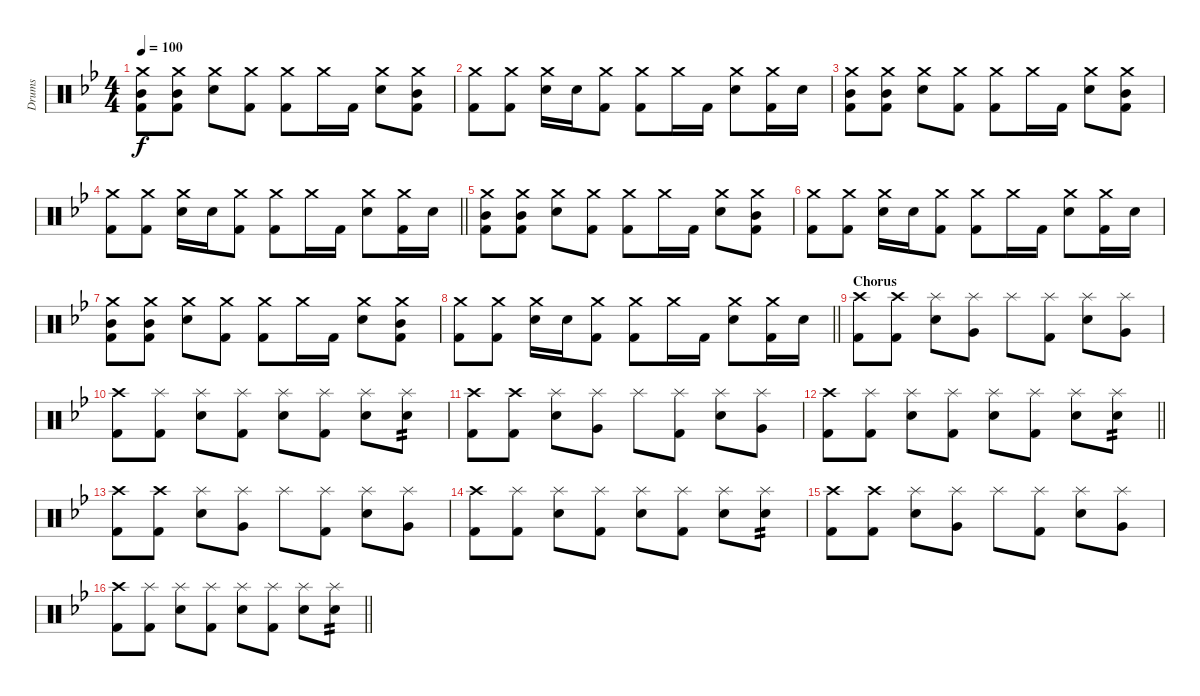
\track ("Drums" "Drums") {instrument percussion}
\staff {score}
\articulation defaults
\ts (4 4)
\section ("" "")
\tempo 100
\clef neutral
\ks gminor
("Crash medium (hit)" "Mid Tom (hit)" "Kick (hit) 2").8{dy f} ("Crash medium (hit)" "Mid Tom (hit)" "Kick (hit) 2").8 ("Crash medium (hit)" "Snare (hit) 2").8 ("Crash medium (hit)" "Kick (hit) 2").8 ("Crash medium (hit)" "Kick (hit) 2").8 "Crash medium (hit)".16 "Kick (hit) 2".16 ("Crash medium (hit)" "Snare (hit) 2").8 ("Crash medium (hit)" "Mid Tom (hit)" "Kick (hit) 2").8 |
("Crash medium (hit)" "Kick (hit) 2").8 ("Crash medium (hit)" "Kick (hit) 2").8 ("Crash medium (hit)" "Snare (hit) 2").16 "Snare (hit) 2".16 ("Crash medium (hit)" "Kick (hit) 2").8 ("Crash medium (hit)" "Kick (hit) 2").8 "Crash medium (hit)".16 "Kick (hit) 2".16 ("Crash medium (hit)" "Snare (hit) 2").8 ("Crash medium (hit)" "Kick (hit) 2").16 "Snare (hit) 2".16 |
("Crash medium (hit)" "Mid Tom (hit)" "Kick (hit) 2").8 ("Crash medium (hit)" "Mid Tom (hit)" "Kick (hit) 2").8 ("Crash medium (hit)" "Snare (hit) 2").8 ("Crash medium (hit)" "Kick (hit) 2").8 ("Crash medium (hit)" "Kick (hit) 2").8 "Crash medium (hit)".16 "Kick (hit) 2".16 ("Crash medium (hit)" "Snare (hit) 2").8 ("Crash medium (hit)" "Mid Tom (hit)" "Kick (hit) 2").8 |
\barLineRight lightlight
("Crash medium (hit)" "Kick (hit) 2").8 ("Crash medium (hit)" "Kick (hit) 2").8 ("Crash medium (hit)" "Snare (hit) 2").16 "Snare (hit) 2".16 ("Crash medium (hit)" "Kick (hit) 2").8 ("Crash medium (hit)" "Kick (hit) 2").8 "Crash medium (hit)".16 "Kick (hit) 2".16 ("Crash medium (hit)" "Snare (hit) 2").8 ("Crash medium (hit)" "Kick (hit) 2").16 "Snare (hit) 2".16 |
\section ("" "")
("Crash medium (hit)" "Mid Tom (hit)" "Kick (hit) 2").8 ("Crash medium (hit)" "Mid Tom (hit)" "Kick (hit) 2").8 ("Crash medium (hit)" "Snare (hit) 2").8 ("Crash medium (hit)" "Kick (hit) 2").8 ("Crash medium (hit)" "Kick (hit) 2").8 "Crash medium (hit)".16 "Kick (hit) 2".16 ("Crash medium (hit)" "Snare (hit) 2").8 ("Crash medium (hit)" "Mid Tom (hit)" "Kick (hit) 2").8 |
("Crash medium (hit)" "Kick (hit) 2").8 ("Crash medium (hit)" "Kick (hit) 2").8 ("Crash medium (hit)" "Snare (hit) 2").16 "Snare (hit) 2".16 ("Crash medium (hit)" "Kick (hit) 2").8 ("Crash medium (hit)" "Kick (hit) 2").8 "Crash medium (hit)".16 "Kick (hit) 2".16 ("Crash medium (hit)" "Snare (hit) 2").8 ("Crash medium (hit)" "Kick (hit) 2").16 "Snare (hit) 2".16 |
("Crash medium (hit)" "Mid Tom (hit)" "Kick (hit) 2").8 ("Crash medium (hit)" "Mid Tom (hit)" "Kick (hit) 2").8 ("Crash medium (hit)" "Snare (hit) 2").8 ("Crash medium (hit)" "Kick (hit) 2").8 ("Crash medium (hit)" "Kick (hit) 2").8 "Crash medium (hit)".16 "Kick (hit) 2".16 ("Crash medium (hit)" "Snare (hit) 2").8 ("Crash medium (hit)" "Mid Tom (hit)" "Kick (hit) 2").8 |
\barLineRight lightlight
("Crash medium (hit)" "Kick (hit) 2").8 ("Crash medium (hit)" "Kick (hit) 2").8 ("Crash medium (hit)" "Snare (hit) 2").16 "Snare (hit) 2".16 ("Crash medium (hit)" "Kick (hit) 2").8 ("Crash medium (hit)" "Kick (hit) 2").8 "Crash medium (hit)".16 "Kick (hit) 2".16 ("Crash medium (hit)" "Snare (hit) 2").8 ("Crash medium (hit)" "Kick (hit) 2").16 "Snare (hit) 2".16 |
\section ("" "Chorus")
("Crash high (hit)" "Kick (hit) 2").8 ("Crash high (hit)" "Kick (hit) 2").8 ("Splash (hit)" "Snare (hit) 2").8 ("Splash (hit)" "Very Low Tom (hit)").8 "Splash (hit)".8 ("Splash (hit)" "Kick (hit) 2").8 ("Splash (hit)" "Snare (hit) 2").8 ("Splash (hit)" "Very Low Tom (hit)").8 |
("Crash high (hit)" "Kick (hit) 2").8 ("Splash (hit)" "Kick (hit) 2").8 ("Splash (hit)" "Snare (hit) 2").8 ("Splash (hit)" "Kick (hit) 2").8 ("Splash (hit)" "Snare (hit) 2").8 ("Splash (hit)" "Kick (hit) 2").8 ("Splash (hit)" "Snare (hit) 2").8 ("Splash (hit)" "Snare (hit) 2").8{tp 2} |
("Crash high (hit)" "Kick (hit) 2").8 ("Crash high (hit)" "Kick (hit) 2").8 ("Splash (hit)" "Snare (hit) 2").8 ("Splash (hit)" "Very Low Tom (hit)").8 "Splash (hit)".8 ("Splash (hit)" "Kick (hit) 2").8 ("Splash (hit)" "Snare (hit) 2").8 ("Splash (hit)" "Very Low Tom (hit)").8 |
\barLineRight lightlight
("Crash high (hit)" "Kick (hit) 2").8 ("Splash (hit)" "Kick (hit) 2").8 ("Splash (hit)" "Snare (hit) 2").8 ("Splash (hit)" "Kick (hit) 2").8 ("Splash (hit)" "Snare (hit) 2").8 ("Splash (hit)" "Kick (hit) 2").8 ("Splash (hit)" "Snare (hit) 2").8 ("Splash (hit)" "Snare (hit) 2").8{tp 2} |
\section ("" "")
("Crash high (hit)" "Kick (hit) 2").8 ("Crash high (hit)" "Kick (hit) 2").8 ("Splash (hit)" "Snare (hit) 2").8 ("Splash (hit)" "Very Low Tom (hit)").8 "Splash (hit)".8 ("Splash (hit)" "Kick (hit) 2").8 ("Splash (hit)" "Snare (hit) 2").8 ("Splash (hit)" "Very Low Tom (hit)").8 |
("Crash high (hit)" "Kick (hit) 2").8 ("Splash (hit)" "Kick (hit) 2").8 ("Splash (hit)" "Snare (hit) 2").8 ("Splash (hit)" "Kick (hit) 2").8 ("Splash (hit)" "Snare (hit) 2").8 ("Splash (hit)" "Kick (hit) 2").8 ("Splash (hit)" "Snare (hit) 2").8 ("Splash (hit)" "Snare (hit) 2").8{tp 2} |
("Crash high (hit)" "Kick (hit) 2").8 ("Crash high (hit)" "Kick (hit) 2").8 ("Splash (hit)" "Snare (hit) 2").8 ("Splash (hit)" "Very Low Tom (hit)").8 "Splash (hit)".8 ("Splash (hit)" "Kick (hit) 2").8 ("Splash (hit)" "Snare (hit) 2").8 ("Splash (hit)" "Very Low Tom (hit)").8 |
\barLineRight lightlight
("Crash high (hit)" "Kick (hit) 2").8 ("Splash (hit)" "Kick (hit) 2").8 ("Splash (hit)" "Snare (hit) 2").8 ("Splash (hit)" "Kick (hit) 2").8 ("Splash (hit)" "Snare (hit) 2").8 ("Splash (hit)" "Kick (hit) 2").8 ("Splash (hit)" "Snare (hit) 2").8 ("Splash (hit)" "Snare (hit) 2").8{tp 2}
